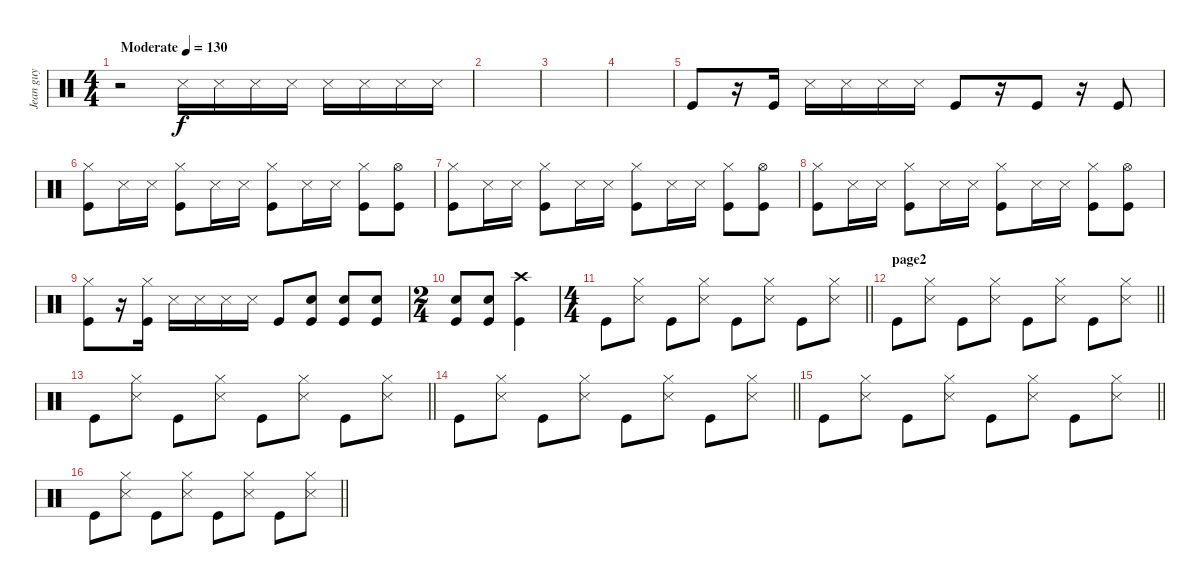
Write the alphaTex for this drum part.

\track ("Jean guy" "Jean guy") {instrument percussion}
\staff {score}
\articulation defaults
\ts (4 4)
\tempo (130 "Moderate")
\clef neutral
\ks c
r.2{dy f} "Snare (side stick) 3".16 "Snare (side stick) 3".16 "Snare (side stick) 3".16 "Snare (side stick) 3".16 "Snare (side stick) 3".16 "Snare (side stick) 3".16 "Snare (side stick) 3".16 "Snare (side stick) 3".16 |
|
|
|
"Kick (hit)".8 r.16 "Kick (hit)".16 "Snare (side stick) 3".16 "Snare (side stick) 3".16 "Snare (side stick) 3".16 "Snare (side stick) 3".16 "Kick (hit)".8 r.16 "Kick (hit)".8 r.16 "Kick (hit)".8 |
("Hi-Hat (closed)" "Kick (hit)").8 "Snare (side stick) 3".16 "Snare (side stick) 3".16 ("Hi-Hat (closed)" "Kick (hit)").8 "Snare (side stick) 3".16 "Snare (side stick) 3".16 ("Hi-Hat (closed)" "Kick (hit)").8 "Snare (side stick) 3".16 "Snare (side stick) 3".16 ("Hi-Hat (closed)" "Kick (hit)").8 ("Hi-Hat (open)" "Kick (hit)").8 |
("Hi-Hat (closed)" "Kick (hit)").8 "Snare (side stick) 3".16 "Snare (side stick) 3".16 ("Hi-Hat (closed)" "Kick (hit)").8 "Snare (side stick) 3".16 "Snare (side stick) 3".16 ("Hi-Hat (closed)" "Kick (hit)").8 "Snare (side stick) 3".16 "Snare (side stick) 3".16 ("Hi-Hat (closed)" "Kick (hit)").8 ("Hi-Hat (open)" "Kick (hit)").8 |
("Hi-Hat (closed)" "Kick (hit)").8 "Snare (side stick) 3".16 "Snare (side stick) 3".16 ("Hi-Hat (closed)" "Kick (hit)").8 "Snare (side stick) 3".16 "Snare (side stick) 3".16 ("Hi-Hat (closed)" "Kick (hit)").8 "Snare (side stick) 3".16 "Snare (side stick) 3".16 ("Hi-Hat (closed)" "Kick (hit)").8 ("Hi-Hat (open)" "Kick (hit)").8 |
("Hi-Hat (closed)" "Kick (hit)").8 r.16 ("Hi-Hat (closed)" "Kick (hit)").16 "Snare (side stick) 3".16 "Snare (side stick) 3".16 "Snare (side stick) 3".16 "Snare (side stick) 3".16 "Kick (hit)".8 ("Electric Snare (hit)" "Kick (hit)").8 ("Electric Snare (hit)" "Kick (hit)").8 ("Electric Snare (hit)" "Kick (hit)").8 |
\ts (2 4)
("Electric Snare (hit)" "Kick (hit)").8 ("Electric Snare (hit)" "Kick (hit)").8 ("Crash high (hit)" "Kick (hit)").4 |
\ts (4 4)
\barLineRight lightlight "Kick (hit)".8
("Hi-Hat (closed)" "Snare (side stick) 3").8 "Kick (hit)".8 ("Hi-Hat (closed)" "Snare (side stick) 3").8 "Kick (hit)".8 ("Hi-Hat (closed)" "Snare (side stick) 3").8 "Kick (hit)".8 ("Hi-Hat (closed)" "Snare (side stick) 3").8 |
\section ("" "page2")
\barLineRight lightlight "Kick (hit)".8
("Hi-Hat (closed)" "Snare (side stick) 3").8 "Kick (hit)".8 ("Hi-Hat (closed)" "Snare (side stick) 3").8 "Kick (hit)".8 ("Hi-Hat (closed)" "Snare (side stick) 3").8 "Kick (hit)".8 ("Hi-Hat (closed)" "Snare (side stick) 3").8 |
\barLineRight lightlight "Kick (hit)".8
("Hi-Hat (closed)" "Snare (side stick) 3").8 "Kick (hit)".8 ("Hi-Hat (closed)" "Snare (side stick) 3").8 "Kick (hit)".8 ("Hi-Hat (closed)" "Snare (side stick) 3").8 "Kick (hit)".8 ("Hi-Hat (closed)" "Snare (side stick) 3").8 |
\barLineRight lightlight "Kick (hit)".8
("Hi-Hat (closed)" "Snare (side stick) 3").8 "Kick (hit)".8 ("Hi-Hat (closed)" "Snare (side stick) 3").8 "Kick (hit)".8 ("Hi-Hat (closed)" "Snare (side stick) 3").8 "Kick (hit)".8 ("Hi-Hat (closed)" "Snare (side stick) 3").8 |
\barLineRight lightlight "Kick (hit)".8
("Hi-Hat (closed)" "Snare (side stick) 3").8 "Kick (hit)".8 ("Hi-Hat (closed)" "Snare (side stick) 3").8 "Kick (hit)".8 ("Hi-Hat (closed)" "Snare (side stick) 3").8 "Kick (hit)".8 ("Hi-Hat (closed)" "Snare (side stick) 3").8 |
\barLineRight lightlight "Kick (hit)".8
("Hi-Hat (closed)" "Snare (side stick) 3").8 "Kick (hit)".8 ("Hi-Hat (closed)" "Snare (side stick) 3").8 "Kick (hit)".8 ("Hi-Hat (closed)" "Snare (side stick) 3").8 "Kick (hit)".8 ("Hi-Hat (closed)" "Snare (side stick) 3").8
